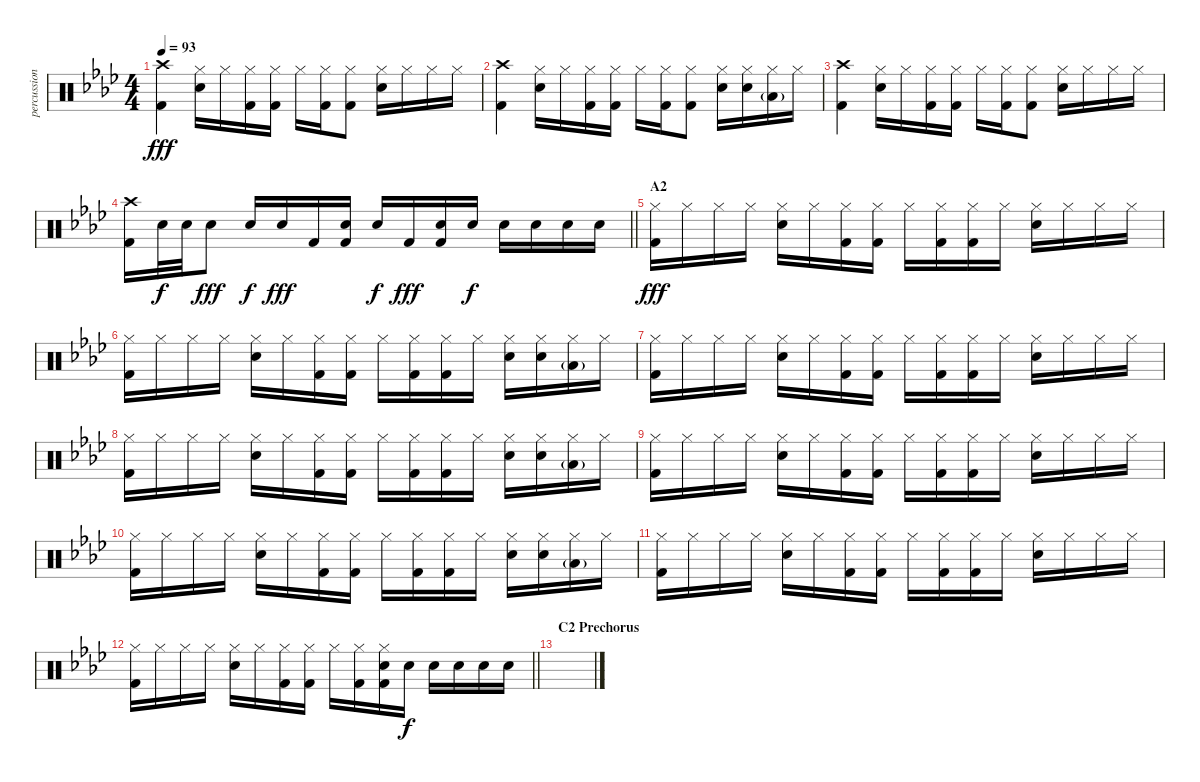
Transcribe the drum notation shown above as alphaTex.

\track ("percussion" "percussion") {instrument percussion}
\staff {score}
\articulation defaults
\ts (4 4)
\tempo 93
\clef neutral
\ks fminor
("Crash high (hit)" "Kick (hit) 2").4{dy fff} ("Snare (hit) 2" "Hi-Hat (closed)").16 "Hi-Hat (closed)".16 ("Hi-Hat (closed)" "Kick (hit) 2").16 ("Hi-Hat (closed)" "Kick (hit) 2").16 "Hi-Hat (closed)".16 ("Hi-Hat (closed)" "Kick (hit) 2").16 ("Hi-Hat (closed)" "Kick (hit) 2").8 ("Snare (hit) 2" "Hi-Hat (closed)").16 "Hi-Hat (closed)".16 "Hi-Hat (closed)".16 "Hi-Hat (closed)".16 |
("Crash high (hit)" "Kick (hit) 2").4 ("Snare (hit) 2" "Hi-Hat (closed)").16 "Hi-Hat (closed)".16 ("Hi-Hat (closed)" "Kick (hit) 2").16 ("Hi-Hat (closed)" "Kick (hit) 2").16 "Hi-Hat (closed)".16 ("Hi-Hat (closed)" "Kick (hit) 2").16 ("Hi-Hat (closed)" "Kick (hit) 2").8 ("Snare (hit) 2" "Hi-Hat (closed)").16 ("Snare (hit) 2" "Hi-Hat (closed)").16 ("Low Floor Tom (hit)"{g} "Hi-Hat (closed)").16 "Hi-Hat (closed)".16 |
("Crash high (hit)" "Kick (hit) 2").4 ("Snare (hit) 2" "Hi-Hat (closed)").16 "Hi-Hat (closed)".16 ("Hi-Hat (closed)" "Kick (hit) 2").16 ("Hi-Hat (closed)" "Kick (hit) 2").16 "Hi-Hat (closed)".16 ("Hi-Hat (closed)" "Kick (hit) 2").16 ("Hi-Hat (closed)" "Kick (hit) 2").8 ("Snare (hit) 2" "Hi-Hat (closed)").16 "Hi-Hat (closed)".16 "Hi-Hat (closed)".16 "Hi-Hat (closed)".16 |
\barLineRight lightlight
("Crash high (hit)" "Kick (hit) 2").16 "Snare (hit) 2".32{dy f} "Snare (hit) 2".32 "Snare (hit) 2".8{dy fff} "Snare (hit) 2".16{dy f} "Snare (hit) 2".16{dy fff} "Kick (hit) 2".16 ("Snare (hit) 2" "Kick (hit) 2").16 "Snare (hit) 2".16{dy f} "Kick (hit) 2".16{dy fff} ("Snare (hit) 2" "Kick (hit) 2").16 "Snare (hit) 2".16{dy f} "Snare (hit) 2".16 "Snare (hit) 2".16 "Snare (hit) 2".16 "Snare (hit) 2".16 |
\section ("" "A2")
("Hi-Hat (closed)" "Kick (hit) 2").16{dy fff} "Hi-Hat (closed)".16 "Hi-Hat (closed)".16 "Hi-Hat (closed)".16 ("Snare (hit) 2" "Hi-Hat (closed)").16 "Hi-Hat (closed)".16 ("Hi-Hat (closed)" "Kick (hit) 2").16 ("Hi-Hat (closed)" "Kick (hit) 2").16 "Hi-Hat (closed)".16 ("Hi-Hat (closed)" "Kick (hit) 2").16 ("Hi-Hat (closed)" "Kick (hit) 2").16 "Hi-Hat (closed)".16 ("Snare (hit) 2" "Hi-Hat (closed)").16 "Hi-Hat (closed)".16 "Hi-Hat (closed)".16 "Hi-Hat (closed)".16 |
("Hi-Hat (closed)" "Kick (hit) 2").16 "Hi-Hat (closed)".16 "Hi-Hat (closed)".16 "Hi-Hat (closed)".16 ("Snare (hit) 2" "Hi-Hat (closed)").16 "Hi-Hat (closed)".16 ("Hi-Hat (closed)" "Kick (hit) 2").16 ("Hi-Hat (closed)" "Kick (hit) 2").16 "Hi-Hat (closed)".16 ("Hi-Hat (closed)" "Kick (hit) 2").16 ("Hi-Hat (closed)" "Kick (hit) 2").16 "Hi-Hat (closed)".16 ("Snare (hit) 2" "Hi-Hat (closed)").16 ("Snare (hit) 2" "Hi-Hat (closed)").16 ("Low Floor Tom (hit)"{g} "Hi-Hat (closed)").16 "Hi-Hat (closed)".16 |
("Hi-Hat (closed)" "Kick (hit) 2").16 "Hi-Hat (closed)".16 "Hi-Hat (closed)".16 "Hi-Hat (closed)".16 ("Snare (hit) 2" "Hi-Hat (closed)").16 "Hi-Hat (closed)".16 ("Hi-Hat (closed)" "Kick (hit) 2").16 ("Hi-Hat (closed)" "Kick (hit) 2").16 "Hi-Hat (closed)".16 ("Hi-Hat (closed)" "Kick (hit) 2").16 ("Hi-Hat (closed)" "Kick (hit) 2").16 "Hi-Hat (closed)".16 ("Snare (hit) 2" "Hi-Hat (closed)").16 "Hi-Hat (closed)".16 "Hi-Hat (closed)".16 "Hi-Hat (closed)".16 |
("Hi-Hat (closed)" "Kick (hit) 2").16 "Hi-Hat (closed)".16 "Hi-Hat (closed)".16 "Hi-Hat (closed)".16 ("Snare (hit) 2" "Hi-Hat (closed)").16 "Hi-Hat (closed)".16 ("Hi-Hat (closed)" "Kick (hit) 2").16 ("Hi-Hat (closed)" "Kick (hit) 2").16 "Hi-Hat (closed)".16 ("Hi-Hat (closed)" "Kick (hit) 2").16 ("Hi-Hat (closed)" "Kick (hit) 2").16 "Hi-Hat (closed)".16 ("Snare (hit) 2" "Hi-Hat (closed)").16 ("Snare (hit) 2" "Hi-Hat (closed)").16 ("Low Floor Tom (hit)"{g} "Hi-Hat (closed)").16 "Hi-Hat (closed)".16 |
("Hi-Hat (closed)" "Kick (hit) 2").16 "Hi-Hat (closed)".16 "Hi-Hat (closed)".16 "Hi-Hat (closed)".16 ("Snare (hit) 2" "Hi-Hat (closed)").16 "Hi-Hat (closed)".16 ("Hi-Hat (closed)" "Kick (hit) 2").16 ("Hi-Hat (closed)" "Kick (hit) 2").16 "Hi-Hat (closed)".16 ("Hi-Hat (closed)" "Kick (hit) 2").16 ("Hi-Hat (closed)" "Kick (hit) 2").16 "Hi-Hat (closed)".16 ("Snare (hit) 2" "Hi-Hat (closed)").16 "Hi-Hat (closed)".16 "Hi-Hat (closed)".16 "Hi-Hat (closed)".16 |
("Hi-Hat (closed)" "Kick (hit) 2").16 "Hi-Hat (closed)".16 "Hi-Hat (closed)".16 "Hi-Hat (closed)".16 ("Snare (hit) 2" "Hi-Hat (closed)").16 "Hi-Hat (closed)".16 ("Hi-Hat (closed)" "Kick (hit) 2").16 ("Hi-Hat (closed)" "Kick (hit) 2").16 "Hi-Hat (closed)".16 ("Hi-Hat (closed)" "Kick (hit) 2").16 ("Hi-Hat (closed)" "Kick (hit) 2").16 "Hi-Hat (closed)".16 ("Snare (hit) 2" "Hi-Hat (closed)").16 ("Snare (hit) 2" "Hi-Hat (closed)").16 ("Low Floor Tom (hit)"{g} "Hi-Hat (closed)").16 "Hi-Hat (closed)".16 |
("Hi-Hat (closed)" "Kick (hit) 2").16 "Hi-Hat (closed)".16 "Hi-Hat (closed)".16 "Hi-Hat (closed)".16 ("Snare (hit) 2" "Hi-Hat (closed)").16 "Hi-Hat (closed)".16 ("Hi-Hat (closed)" "Kick (hit) 2").16 ("Hi-Hat (closed)" "Kick (hit) 2").16 "Hi-Hat (closed)".16 ("Hi-Hat (closed)" "Kick (hit) 2").16 ("Hi-Hat (closed)" "Kick (hit) 2").16 "Hi-Hat (closed)".16 ("Snare (hit) 2" "Hi-Hat (closed)").16 "Hi-Hat (closed)".16 "Hi-Hat (closed)".16 "Hi-Hat (closed)".16 |
\barLineRight lightlight
("Hi-Hat (closed)" "Kick (hit) 2").16 "Hi-Hat (closed)".16 "Hi-Hat (closed)".16 "Hi-Hat (closed)".16 ("Snare (hit) 2" "Hi-Hat (closed)").16 "Hi-Hat (closed)".16 ("Hi-Hat (closed)" "Kick (hit) 2").16 ("Hi-Hat (closed)" "Kick (hit) 2").16 "Hi-Hat (closed)".16 ("Hi-Hat (closed)" "Kick (hit) 2").16 ("Snare (hit) 2" "Hi-Hat (closed)" "Kick (hit) 2").16 "Snare (hit) 2".16{dy f} "Snare (hit) 2".16 "Snare (hit) 2".16 "Snare (hit) 2".16 "Snare (hit) 2".16 |
\section ("" "C2 Prechorus")
